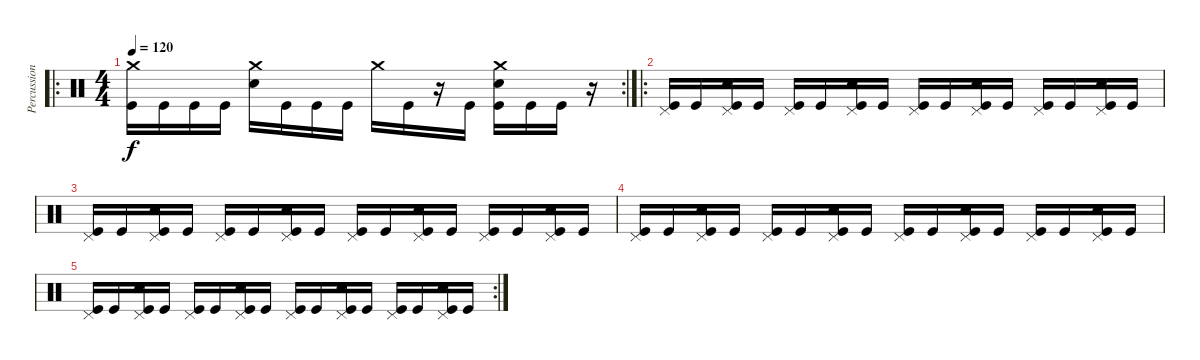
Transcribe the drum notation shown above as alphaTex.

\track ("Percussion" "Percussion") {instrument percussion}
\staff {score}
\articulation defaults
\ro
\rc 2
\ts (4 4)
\tempo 120
\clef neutral
\ks c
("Crash medium (hit)" "Kick (hit)").16{dy f} "Kick (hit)".16 "Kick (hit)".16 "Kick (hit)".16 ("Crash medium (hit)" "Snare (hit) 2").16 "Kick (hit)".16 "Kick (hit)".16 "Kick (hit)".16 "Crash medium (hit)".16 "Kick (hit)".16 r.16 "Kick (hit)".16 ("Crash medium (hit)" "Snare (hit) 2" "Kick (hit)").16 "Kick (hit)".16 "Kick (hit)".16 r.16 |
\ro
("Pedal Hi-Hat (hit)" "Kick (hit)").16 "Kick (hit)".16 ("Pedal Hi-Hat (hit)" "Snare (hit) 2" "Kick (hit)").16 "Kick (hit)".16 ("Pedal Hi-Hat (hit)" "Kick (hit)").16 "Kick (hit)".16 ("Pedal Hi-Hat (hit)" "Snare (hit) 2" "Kick (hit)").16 "Kick (hit)".16 ("Pedal Hi-Hat (hit)" "Kick (hit)").16 "Kick (hit)".16 ("Pedal Hi-Hat (hit)" "Snare (hit) 2" "Kick (hit)").16 "Kick (hit)".16 ("Pedal Hi-Hat (hit)" "Kick (hit)").16 "Kick (hit)".16 ("Pedal Hi-Hat (hit)" "Snare (hit) 2" "Kick (hit)").16 "Kick (hit)".16 |
("Pedal Hi-Hat (hit)" "Kick (hit)").16 "Kick (hit)".16 ("Pedal Hi-Hat (hit)" "Snare (hit) 2" "Kick (hit)").16 "Kick (hit)".16 ("Pedal Hi-Hat (hit)" "Kick (hit)").16 "Kick (hit)".16 ("Pedal Hi-Hat (hit)" "Snare (hit) 2" "Kick (hit)").16 "Kick (hit)".16 ("Pedal Hi-Hat (hit)" "Kick (hit)").16 "Kick (hit)".16 ("Pedal Hi-Hat (hit)" "Snare (hit) 2" "Kick (hit)").16 "Kick (hit)".16 ("Pedal Hi-Hat (hit)" "Kick (hit)").16 "Kick (hit)".16 ("Pedal Hi-Hat (hit)" "Snare (hit) 2" "Kick (hit)").16 "Kick (hit)".16 |
("Pedal Hi-Hat (hit)" "Kick (hit)").16 "Kick (hit)".16 ("Pedal Hi-Hat (hit)" "Snare (hit) 2" "Kick (hit)").16 "Kick (hit)".16 ("Pedal Hi-Hat (hit)" "Kick (hit)").16 "Kick (hit)".16 ("Pedal Hi-Hat (hit)" "Snare (hit) 2" "Kick (hit)").16 "Kick (hit)".16 ("Pedal Hi-Hat (hit)" "Kick (hit)").16 "Kick (hit)".16 ("Pedal Hi-Hat (hit)" "Snare (hit) 2" "Kick (hit)").16 "Kick (hit)".16 ("Pedal Hi-Hat (hit)" "Kick (hit)").16 "Kick (hit)".16 ("Pedal Hi-Hat (hit)" "Snare (hit) 2" "Kick (hit)").16 "Kick (hit)".16 |
\rc 2
("Pedal Hi-Hat (hit)" "Kick (hit)").16 "Kick (hit)".16 ("Pedal Hi-Hat (hit)" "Snare (hit) 2" "Kick (hit)").16 "Kick (hit)".16 ("Pedal Hi-Hat (hit)" "Kick (hit)").16 "Kick (hit)".16 ("Pedal Hi-Hat (hit)" "Snare (hit) 2" "Kick (hit)").16 "Kick (hit)".16 ("Pedal Hi-Hat (hit)" "Kick (hit)").16 "Kick (hit)".16 ("Pedal Hi-Hat (hit)" "Snare (hit) 2" "Kick (hit)").16 "Kick (hit)".16 ("Pedal Hi-Hat (hit)" "Kick (hit)").16 "Kick (hit)".16 ("Pedal Hi-Hat (hit)" "Snare (hit) 2" "Kick (hit)").16 "Kick (hit)".16
